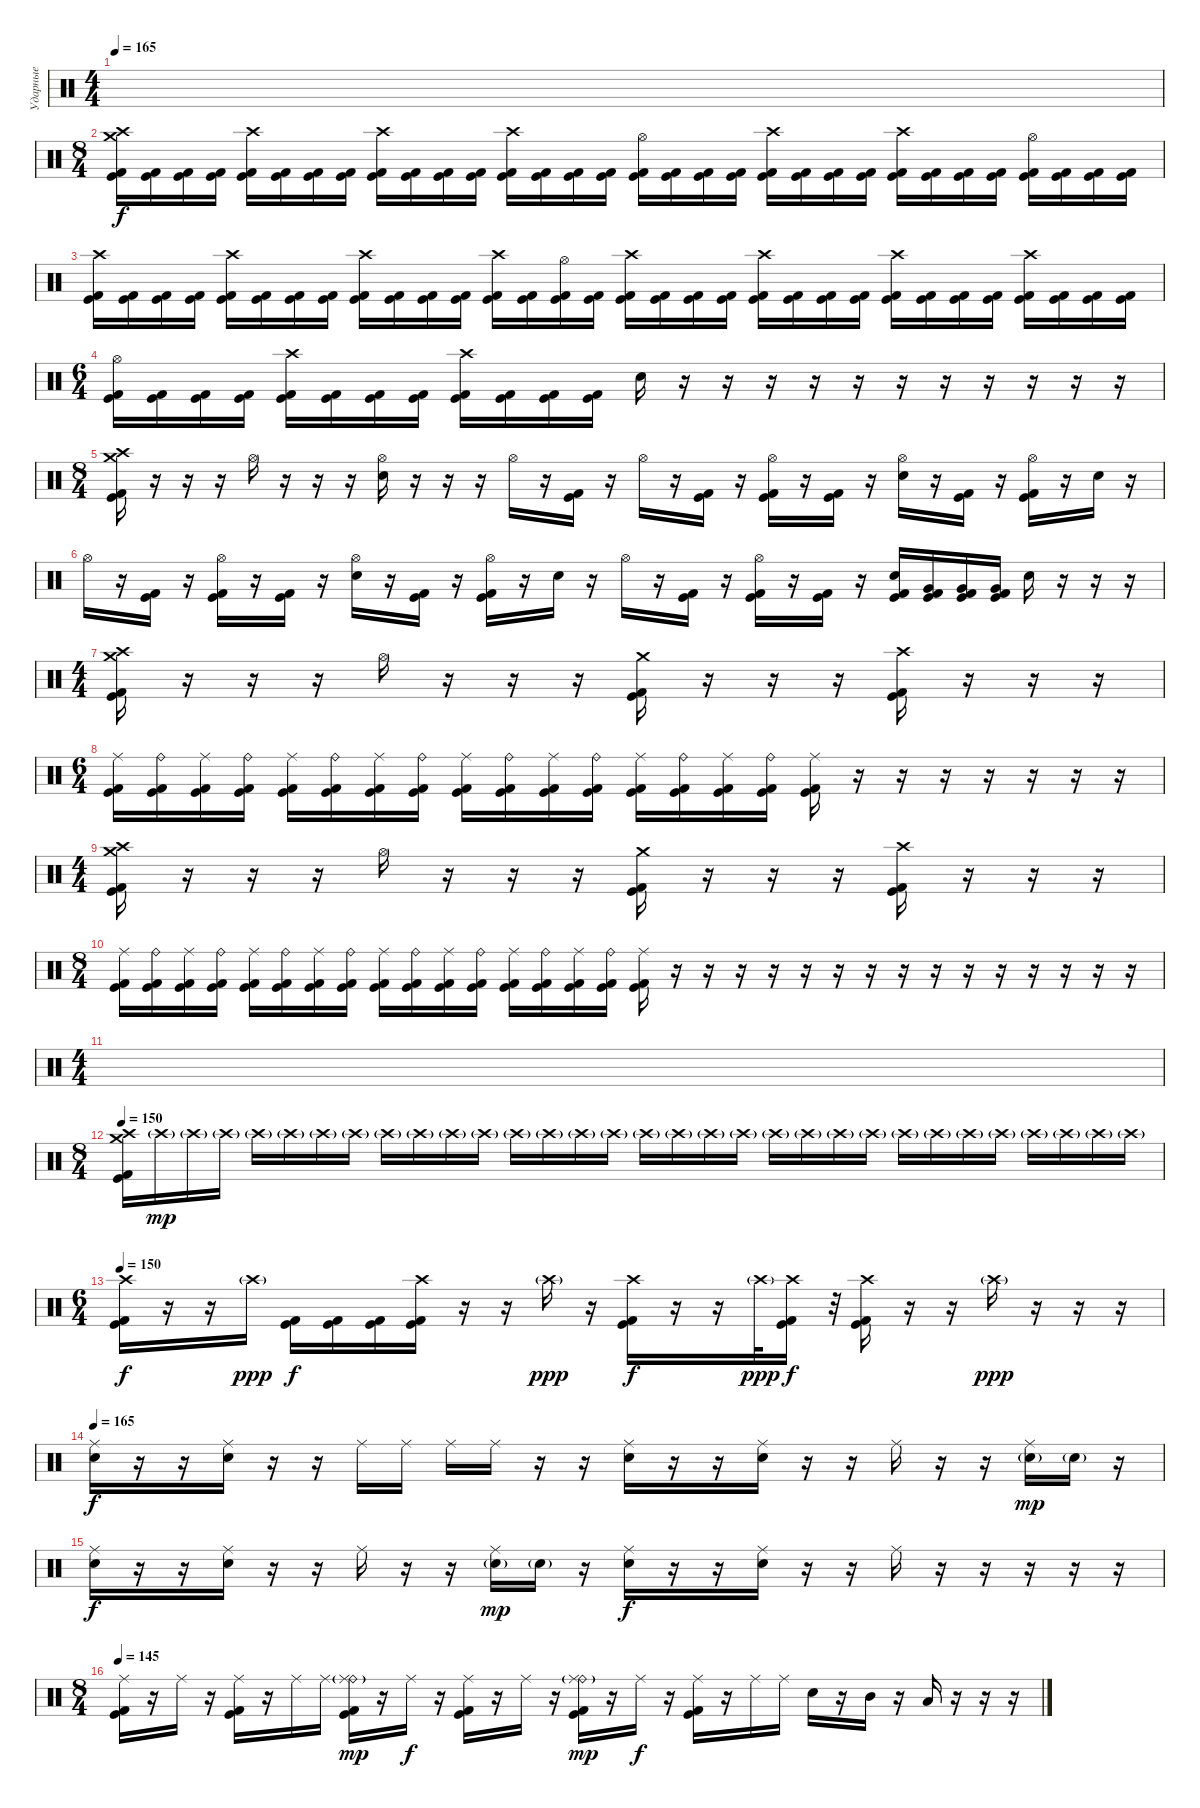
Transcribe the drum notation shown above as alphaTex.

\track ("Ударные" "Ударные") {instrument percussion}
\staff {score}
\articulation defaults
\ts (4 4)
\tempo 165
\clef neutral
\ks c
|
\ts (8 4)
("Crash medium (hit)" "Crash high (hit)" "Kick (hit)" "Kick (hit) 2").16 ("Kick (hit)" "Kick (hit) 2").16 ("Kick (hit)" "Kick (hit) 2").16 ("Kick (hit)" "Kick (hit) 2").16 ("Crash high (hit)" "Kick (hit)" "Kick (hit) 2").16 ("Kick (hit)" "Kick (hit) 2").16 ("Kick (hit)" "Kick (hit) 2").16 ("Kick (hit)" "Kick (hit) 2").16 ("Crash high (hit)" "Kick (hit)" "Kick (hit) 2").16 ("Kick (hit)" "Kick (hit) 2").16 ("Kick (hit)" "Kick (hit) 2").16 ("Kick (hit)" "Kick (hit) 2").16 ("Crash high (hit)" "Kick (hit)" "Kick (hit) 2").16 ("Kick (hit)" "Kick (hit) 2").16 ("Kick (hit)" "Kick (hit) 2").16 ("Kick (hit)" "Kick (hit) 2").16 ("Hi-Hat (open)" "Kick (hit)" "Kick (hit) 2").16 ("Kick (hit)" "Kick (hit) 2").16 ("Kick (hit)" "Kick (hit) 2").16 ("Kick (hit)" "Kick (hit) 2").16 ("Crash high (hit)" "Kick (hit)" "Kick (hit) 2").16 ("Kick (hit)" "Kick (hit) 2").16 ("Kick (hit)" "Kick (hit) 2").16 ("Kick (hit)" "Kick (hit) 2").16 ("Crash high (hit)" "Kick (hit)" "Kick (hit) 2").16 ("Kick (hit)" "Kick (hit) 2").16 ("Kick (hit)" "Kick (hit) 2").16 ("Kick (hit)" "Kick (hit) 2").16 ("Hi-Hat (open)" "Kick (hit)" "Kick (hit) 2").16 ("Kick (hit)" "Kick (hit) 2").16 ("Kick (hit)" "Kick (hit) 2").16 ("Kick (hit)" "Kick (hit) 2").16 |
("Crash high (hit)" "Kick (hit)" "Kick (hit) 2").16 ("Kick (hit)" "Kick (hit) 2").16 ("Kick (hit)" "Kick (hit) 2").16 ("Kick (hit)" "Kick (hit) 2").16 ("Crash high (hit)" "Kick (hit)" "Kick (hit) 2").16 ("Kick (hit)" "Kick (hit) 2").16 ("Kick (hit)" "Kick (hit) 2").16 ("Kick (hit)" "Kick (hit) 2").16 ("Crash high (hit)" "Kick (hit)" "Kick (hit) 2").16 ("Kick (hit)" "Kick (hit) 2").16 ("Kick (hit)" "Kick (hit) 2").16 ("Kick (hit)" "Kick (hit) 2").16 ("Crash high (hit)" "Kick (hit)" "Kick (hit) 2").16 ("Kick (hit)" "Kick (hit) 2").16 ("Hi-Hat (open)" "Kick (hit)" "Kick (hit) 2").16 ("Kick (hit)" "Kick (hit) 2").16 ("Crash high (hit)" "Kick (hit)" "Kick (hit) 2").16 ("Kick (hit)" "Kick (hit) 2").16 ("Kick (hit)" "Kick (hit) 2").16 ("Kick (hit)" "Kick (hit) 2").16 ("Crash high (hit)" "Kick (hit)" "Kick (hit) 2").16 ("Kick (hit)" "Kick (hit) 2").16 ("Kick (hit)" "Kick (hit) 2").16 ("Kick (hit)" "Kick (hit) 2").16 ("Crash high (hit)" "Kick (hit)" "Kick (hit) 2").16 ("Kick (hit)" "Kick (hit) 2").16 ("Kick (hit)" "Kick (hit) 2").16 ("Kick (hit)" "Kick (hit) 2").16 ("Crash high (hit)" "Kick (hit)" "Kick (hit) 2").16 ("Kick (hit)" "Kick (hit) 2").16 ("Kick (hit)" "Kick (hit) 2").16 ("Kick (hit)" "Kick (hit) 2").16 |
\ts (6 4)
("Hi-Hat (open)" "Kick (hit)" "Kick (hit) 2").16 ("Kick (hit)" "Kick (hit) 2").16 ("Kick (hit)" "Kick (hit) 2").16 ("Kick (hit)" "Kick (hit) 2").16 ("Crash high (hit)" "Kick (hit)" "Kick (hit) 2").16 ("Kick (hit)" "Kick (hit) 2").16 ("Kick (hit)" "Kick (hit) 2").16 ("Kick (hit)" "Kick (hit) 2").16 ("Crash high (hit)" "Kick (hit)" "Kick (hit) 2").16 ("Kick (hit)" "Kick (hit) 2").16 ("Kick (hit)" "Kick (hit) 2").16 ("Kick (hit)" "Kick (hit) 2").16 "Electric Snare (hit)".16 r.16 r.16 r.16 r.16 r.16 r.16 r.16 r.16 r.16 r.16 r.16 |
\ts (8 4)
("Crash medium (hit)" "Crash high (hit)" "Kick (hit)" "Kick (hit) 2").16 r.16 r.16 r.16 "Hi-Hat (open)".16 r.16 r.16 r.16 ("Hi-Hat (open)" "Electric Snare (hit)").16 r.16 r.16 r.16 "Hi-Hat (open)".16 r.16 ("Kick (hit)" "Kick (hit) 2").16 r.16 "Hi-Hat (open)".16 r.16 ("Kick (hit)" "Kick (hit) 2").16 r.16 ("Hi-Hat (open)" "Kick (hit)" "Kick (hit) 2").16 r.16 ("Kick (hit)" "Kick (hit) 2").16 r.16 ("Hi-Hat (open)" "Electric Snare (hit)").16 r.16 ("Kick (hit)" "Kick (hit) 2").16 r.16 ("Hi-Hat (open)" "Kick (hit)" "Kick (hit) 2").16 r.16 "Electric Snare (hit)".16 r.16 |
"Hi-Hat (open)".16 r.16 ("Kick (hit)" "Kick (hit) 2").16 r.16 ("Hi-Hat (open)" "Kick (hit)" "Kick (hit) 2").16 r.16 ("Kick (hit)" "Kick (hit) 2").16 r.16 ("Hi-Hat (open)" "Electric Snare (hit)").16 r.16 ("Kick (hit)" "Kick (hit) 2").16 r.16 ("Hi-Hat (open)" "Kick (hit)" "Kick (hit) 2").16 r.16 "Electric Snare (hit)".16 r.16 "Hi-Hat (open)".16 r.16 ("Kick (hit)" "Kick (hit) 2").16 r.16 ("Hi-Hat (open)" "Kick (hit)" "Kick (hit) 2").16 r.16 ("Kick (hit)" "Kick (hit) 2").16 r.16 ("Electric Snare (hit)" "Kick (hit)" "Kick (hit) 2").16 ("Very Low Tom (hit)" "Kick (hit)" "Kick (hit) 2").16 ("Very Low Tom (hit)" "Kick (hit)" "Kick (hit) 2").16 ("Very Low Tom (hit)" "Kick (hit)" "Kick (hit) 2").16 "Electric Snare (hit)".16 r.16 r.16 r.16 |
\ts (4 4)
("Crash medium (hit)" "Crash high (hit)" "Kick (hit)" "Kick (hit) 2").16 r.16 r.16 r.16 "Hi-Hat (open)".16 r.16 r.16 r.16 ("Crash medium (hit)" "Kick (hit)" "Kick (hit) 2").16 r.16 r.16 r.16 ("Crash high (hit)" "Kick (hit)" "Kick (hit) 2").16 r.16 r.16 r.16 |
\ts (6 4)
("Ride (middle)" "Kick (hit)" "Kick (hit) 2").16 ("Ride (bell)" "Kick (hit)" "Kick (hit) 2").16 ("Ride (middle)" "Kick (hit)" "Kick (hit) 2").16 ("Ride (bell)" "Kick (hit)" "Kick (hit) 2").16 ("Ride (middle)" "Kick (hit)" "Kick (hit) 2").16 ("Ride (bell)" "Kick (hit)" "Kick (hit) 2").16 ("Ride (middle)" "Kick (hit)" "Kick (hit) 2").16 ("Ride (bell)" "Kick (hit)" "Kick (hit) 2").16 ("Ride (middle)" "Kick (hit)" "Kick (hit) 2").16 ("Ride (bell)" "Kick (hit)" "Kick (hit) 2").16 ("Ride (middle)" "Kick (hit)" "Kick (hit) 2").16 ("Ride (bell)" "Kick (hit)" "Kick (hit) 2").16 ("Ride (middle)" "Kick (hit)" "Kick (hit) 2").16 ("Ride (bell)" "Kick (hit)" "Kick (hit) 2").16 ("Ride (middle)" "Kick (hit)" "Kick (hit) 2").16 ("Ride (bell)" "Kick (hit)" "Kick (hit) 2").16 ("Ride (middle)" "Kick (hit)" "Kick (hit) 2").16 r.16 r.16 r.16 r.16 r.16 r.16 r.16 |
\ts (4 4)
("Crash medium (hit)" "Crash high (hit)" "Kick (hit)" "Kick (hit) 2").16 r.16 r.16 r.16 "Hi-Hat (open)".16 r.16 r.16 r.16 ("Crash medium (hit)" "Kick (hit)" "Kick (hit) 2").16 r.16 r.16 r.16 ("Crash high (hit)" "Kick (hit)" "Kick (hit) 2").16 r.16 r.16 r.16 |
\ts (8 4)
("Ride (middle)" "Kick (hit)" "Kick (hit) 2").16 ("Ride (bell)" "Kick (hit)" "Kick (hit) 2").16 ("Ride (middle)" "Kick (hit)" "Kick (hit) 2").16 ("Ride (bell)" "Kick (hit)" "Kick (hit) 2").16 ("Ride (middle)" "Kick (hit)" "Kick (hit) 2").16 ("Ride (bell)" "Kick (hit)" "Kick (hit) 2").16 ("Ride (middle)" "Kick (hit)" "Kick (hit) 2").16 ("Ride (bell)" "Kick (hit)" "Kick (hit) 2").16 ("Ride (middle)" "Kick (hit)" "Kick (hit) 2").16 ("Ride (bell)" "Kick (hit)" "Kick (hit) 2").16 ("Ride (middle)" "Kick (hit)" "Kick (hit) 2").16 ("Ride (bell)" "Kick (hit)" "Kick (hit) 2").16 ("Ride (middle)" "Kick (hit)" "Kick (hit) 2").16 ("Ride (bell)" "Kick (hit)" "Kick (hit) 2").16 ("Ride (middle)" "Kick (hit)" "Kick (hit) 2").16 ("Ride (bell)" "Kick (hit)" "Kick (hit) 2").16 ("Ride (middle)" "Kick (hit)" "Kick (hit) 2").16 r.16 r.16 r.16 r.16 r.16 r.16 r.16 r.16 r.16 r.16 r.16 r.16 r.16 r.16 r.16 |
\ts (4 4)
|
\ts (8 4)
\tempo 150
("Crash medium (hit)" "Crash high (hit)" "Kick (hit)" "Kick (hit) 2").16 "Crash high (hit)"{g}.16{dy mp} "Crash high (hit)"{g}.16 "Crash high (hit)"{g}.16 "Crash high (hit)"{g}.16 "Crash high (hit)"{g}.16 "Crash high (hit)"{g}.16 "Crash high (hit)"{g}.16 "Crash high (hit)"{g}.16 "Crash high (hit)"{g}.16 "Crash high (hit)"{g}.16 "Crash high (hit)"{g}.16 "Crash high (hit)"{g}.16 "Crash high (hit)"{g}.16 "Crash high (hit)"{g}.16 "Crash high (hit)"{g}.16 "Crash high (hit)"{g}.16 "Crash high (hit)"{g}.16 "Crash high (hit)"{g}.16 "Crash high (hit)"{g}.16 "Crash high (hit)"{g}.16 "Crash high (hit)"{g}.16 "Crash high (hit)"{g}.16 "Crash high (hit)"{g}.16 "Crash high (hit)"{g}.16 "Crash high (hit)"{g}.16 "Crash high (hit)"{g}.16 "Crash high (hit)"{g}.16 "Crash high (hit)"{g}.16 "Crash high (hit)"{g}.16 "Crash high (hit)"{g}.16 "Crash high (hit)"{g}.16 |
\ts (6 4)
\tempo 150
("Crash high (hit)" "Kick (hit)" "Kick (hit) 2").16{dy f} r.16 r.16 "Crash high (hit)"{g}.16{dy ppp} ("Kick (hit)" "Kick (hit) 2").16{dy f} ("Kick (hit)" "Kick (hit) 2").16 ("Kick (hit)" "Kick (hit) 2").16 ("Crash high (hit)" "Kick (hit)" "Kick (hit) 2").16 r.16 r.16 "Crash high (hit)"{g}.16{dy ppp} r.16 ("Crash high (hit)" "Kick (hit)" "Kick (hit) 2").16{dy f} r.16 r.16 "Crash high (hit)"{g}.32{dy ppp} ("Crash high (hit)" "Kick (hit)" "Kick (hit) 2").16{dy f} r.32 ("Crash high (hit)" "Kick (hit)" "Kick (hit) 2").16 r.16 r.16 "Crash high (hit)"{g}.16{dy ppp} r.16 r.16 r.16 |
\tempo 165
("Ride (middle)" "Electric Snare (hit)").16{dy f} r.16 r.16 ("Ride (middle)" "Electric Snare (hit)").16 r.16 r.16 "Ride (middle)".16 "Ride (middle)".16 "Ride (middle)".16 "Ride (middle)".16 r.16 r.16 ("Ride (middle)" "Electric Snare (hit)").16 r.16 r.16 ("Ride (middle)" "Electric Snare (hit)").16 r.16 r.16 "Ride (middle)".16 r.16 r.16 ("Ride (middle)" "Electric Snare (hit)"{g}).16{dy mp} "Electric Snare (hit)"{g}.16 r.16 |
("Ride (middle)" "Electric Snare (hit)").16{dy f} r.16 r.16 ("Ride (middle)" "Electric Snare (hit)").16 r.16 r.16 "Ride (middle)".16 r.16 r.16 ("Ride (middle)" "Electric Snare (hit)"{g}).16{dy mp} "Electric Snare (hit)"{g}.16 r.16 ("Ride (middle)" "Electric Snare (hit)").16{dy f} r.16 r.16 ("Ride (middle)" "Electric Snare (hit)").16 r.16 r.16 "Ride (middle)".16 r.16 r.16 r.16 r.16 r.16 |
\ts (8 4)
\tempo 145
("Ride (middle)" "Kick (hit)" "Kick (hit) 2").16 r.16 "Ride (middle)".16 r.16 ("Ride (middle)" "Kick (hit)" "Kick (hit) 2").16 r.16 "Ride (middle)".16 "Ride (middle)".16 ("Ride (bell)"{g} "Ride (middle)" "Kick (hit)" "Kick (hit) 2").16{dy mp} r.16 "Ride (middle)".16{dy f} r.16 ("Ride (middle)" "Kick (hit)" "Kick (hit) 2").16 r.16 "Ride (middle)".16 r.16 ("Ride (bell)"{g} "Ride (middle)" "Kick (hit)" "Kick (hit) 2").16{dy mp} r.16 "Ride (middle)".16{dy f} r.16 ("Ride (middle)" "Kick (hit)" "Kick (hit) 2").16 r.16 "Ride (middle)".16 "Ride (middle)".16 "Electric Snare (hit)".16 r.16 "Mid Tom (hit)".16 r.16 "Low Tom (hit)".16 r.16 r.16 r.16
